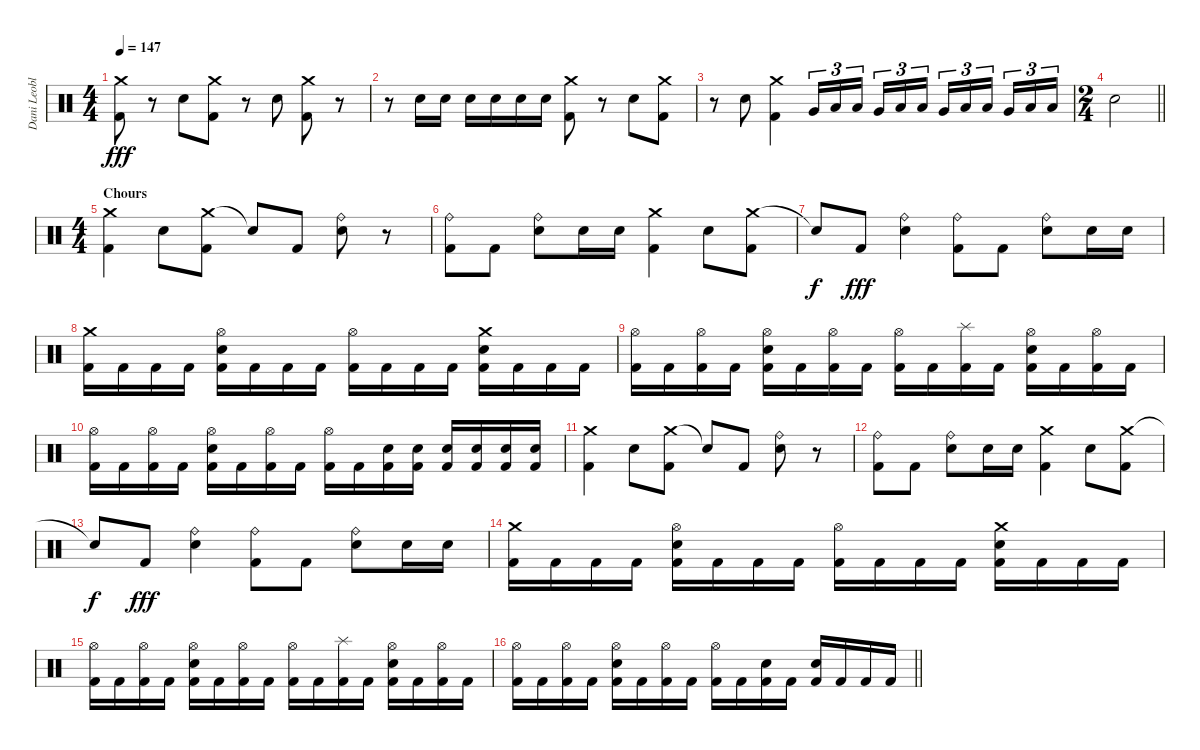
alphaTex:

\track ("Dani Leoble" "Dani Leobl") {instrument percussion}
\staff {score}
\articulation defaults
\ts (4 4)
\tempo 147
\clef neutral
\ks c
("Crash medium (hit)" "Kick (hit) 2").8{dy fff} r.8 "Electric Snare (hit)".8 ("Crash medium (hit)" "Kick (hit) 2").8 r.8 "Electric Snare (hit)".8 ("Crash medium (hit)" "Kick (hit) 2").8 r.8 |
r.8 "Electric Snare (hit)".16 "Electric Snare (hit)".16 "Electric Snare (hit)".16 "Electric Snare (hit)".16 "Electric Snare (hit)".16 "Electric Snare (hit)".16 ("Crash medium (hit)" "Kick (hit) 2").8 r.8 "Electric Snare (hit)".8 ("Crash medium (hit)" "Kick (hit) 2").8 |
r.8 "Electric Snare (hit)".8 ("Crash medium (hit)" "Kick (hit) 2").4 "Very Low Tom (hit)".16{tu (3 2)} "Low Floor Tom (hit)".16{tu (3 2)} "Low Floor Tom (hit)".16{tu (3 2) beam splitsecondary} "Very Low Tom (hit)".16{tu (3 2)} "Low Floor Tom (hit)".16{tu (3 2)} "Low Floor Tom (hit)".16{tu (3 2)} "Very Low Tom (hit)".16{tu (3 2)} "Low Floor Tom (hit)".16{tu (3 2)} "Low Floor Tom (hit)".16{tu (3 2) beam splitsecondary} "Very Low Tom (hit)".16{tu (3 2)} "Low Floor Tom (hit)".16{tu (3 2)} "Low Floor Tom (hit)".16{tu (3 2)} |
\ts (2 4)
\barLineRight lightlight "Electric Snare (hit)".2
|
\ts (4 4)
\section ("" "Chours")
("Crash medium (hit)" "Kick (hit) 2").4 "Electric Snare (hit)".8 ("Crash medium (hit)" "Kick (hit) 2").8 "Snare (hit)"{t}.8 "Kick (hit) 2".8 ("Ride (bell)" "Electric Snare (hit)").8 r.8 |
("Ride (bell)" "Kick (hit) 2").8 "Kick (hit) 2".8 ("Ride (bell)" "Electric Snare (hit)").8 "Electric Snare (hit)".16 "Electric Snare (hit)".16 ("Crash medium (hit)" "Kick (hit) 2").4 "Electric Snare (hit)".8 ("Crash medium (hit)" "Kick (hit) 2").8 |
"Snare (hit)"{t}.8{dy f} "Kick (hit) 2".8{dy fff} ("Ride (bell)" "Electric Snare (hit)").4 ("Ride (bell)" "Kick (hit) 2").8 "Kick (hit) 2".8 ("Ride (bell)" "Electric Snare (hit)").8 "Electric Snare (hit)".16 "Electric Snare (hit)".16 |
("Crash medium (hit)" "Kick (hit) 2").16 "Kick (hit) 2".16 "Kick (hit) 2".16 "Kick (hit) 2".16 ("Hi-Hat (open)" "Electric Snare (hit)" "Kick (hit) 2").16 "Kick (hit) 2".16 "Kick (hit) 2".16 "Kick (hit) 2".16 ("Hi-Hat (open)" "Kick (hit) 2").16 "Kick (hit) 2".16 "Kick (hit) 2".16 "Kick (hit) 2".16 ("Crash medium (hit)" "Electric Snare (hit)" "Kick (hit) 2").16 "Kick (hit) 2".16 "Kick (hit) 2".16 "Kick (hit) 2".16 |
("Hi-Hat (open)" "Kick (hit) 2").16 "Kick (hit) 2".16 ("Hi-Hat (open)" "Kick (hit) 2").16 "Kick (hit) 2".16 ("Hi-Hat (open)" "Electric Snare (hit)" "Kick (hit) 2").16 "Kick (hit) 2".16 ("Hi-Hat (open)" "Kick (hit) 2").16 "Kick (hit) 2".16 ("Hi-Hat (open)" "Kick (hit) 2").16 "Kick (hit) 2".16 ("Splash (hit)" "Kick (hit) 2").16 "Kick (hit) 2".16 ("Hi-Hat (open)" "Electric Snare (hit)" "Kick (hit) 2").16 "Kick (hit) 2".16 ("Hi-Hat (open)" "Kick (hit) 2").16 "Kick (hit) 2".16 |
("Hi-Hat (open)" "Kick (hit) 2").16 "Kick (hit) 2".16 ("Hi-Hat (open)" "Kick (hit) 2").16 "Kick (hit) 2".16 ("Hi-Hat (open)" "Electric Snare (hit)" "Kick (hit) 2").16 "Kick (hit) 2".16 ("Hi-Hat (open)" "Kick (hit) 2").16 "Kick (hit) 2".16 ("Hi-Hat (open)" "Kick (hit) 2").16 "Kick (hit) 2".16 ("Electric Snare (hit)" "Kick (hit) 2").16 ("Electric Snare (hit)" "Kick (hit) 2").16 ("Electric Snare (hit)" "Kick (hit) 2").16 ("Electric Snare (hit)" "Kick (hit) 2").16 ("Electric Snare (hit)" "Kick (hit) 2").16 ("Electric Snare (hit)" "Kick (hit) 2").16 |
("Crash medium (hit)" "Kick (hit) 2").4 "Electric Snare (hit)".8 ("Crash medium (hit)" "Kick (hit) 2").8 "Snare (hit)"{t}.8 "Kick (hit) 2".8 ("Ride (bell)" "Electric Snare (hit)").8 r.8 |
("Ride (bell)" "Kick (hit) 2").8 "Kick (hit) 2".8 ("Ride (bell)" "Electric Snare (hit)").8 "Electric Snare (hit)".16 "Electric Snare (hit)".16 ("Crash medium (hit)" "Kick (hit) 2").4 "Electric Snare (hit)".8 ("Crash medium (hit)" "Kick (hit) 2").8 |
"Snare (hit)"{t}.8{dy f} "Kick (hit) 2".8{dy fff} ("Ride (bell)" "Electric Snare (hit)").4 ("Ride (bell)" "Kick (hit) 2").8 "Kick (hit) 2".8 ("Ride (bell)" "Electric Snare (hit)").8 "Electric Snare (hit)".16 "Electric Snare (hit)".16 |
("Crash medium (hit)" "Kick (hit) 2").16 "Kick (hit) 2".16 "Kick (hit) 2".16 "Kick (hit) 2".16 ("Hi-Hat (open)" "Electric Snare (hit)" "Kick (hit) 2").16 "Kick (hit) 2".16 "Kick (hit) 2".16 "Kick (hit) 2".16 ("Hi-Hat (open)" "Kick (hit) 2").16 "Kick (hit) 2".16 "Kick (hit) 2".16 "Kick (hit) 2".16 ("Crash medium (hit)" "Electric Snare (hit)" "Kick (hit) 2").16 "Kick (hit) 2".16 "Kick (hit) 2".16 "Kick (hit) 2".16 |
("Hi-Hat (open)" "Kick (hit) 2").16 "Kick (hit) 2".16 ("Hi-Hat (open)" "Kick (hit) 2").16 "Kick (hit) 2".16 ("Hi-Hat (open)" "Electric Snare (hit)" "Kick (hit) 2").16 "Kick (hit) 2".16 ("Hi-Hat (open)" "Kick (hit) 2").16 "Kick (hit) 2".16 ("Hi-Hat (open)" "Kick (hit) 2").16 "Kick (hit) 2".16 ("Splash (hit)" "Kick (hit) 2").16 "Kick (hit) 2".16 ("Hi-Hat (open)" "Electric Snare (hit)" "Kick (hit) 2").16 "Kick (hit) 2".16 ("Hi-Hat (open)" "Kick (hit) 2").16 "Kick (hit) 2".16 |
\barLineRight lightlight
("Hi-Hat (open)" "Kick (hit) 2").16 "Kick (hit) 2".16 ("Hi-Hat (open)" "Kick (hit) 2").16 "Kick (hit) 2".16 ("Hi-Hat (open)" "Electric Snare (hit)" "Kick (hit) 2").16 "Kick (hit) 2".16 ("Hi-Hat (open)" "Kick (hit) 2").16 "Kick (hit) 2".16 ("Hi-Hat (open)" "Kick (hit) 2").16 "Kick (hit) 2".16 ("Electric Snare (hit)" "Kick (hit) 2").16 "Kick (hit) 2".16 ("Electric Snare (hit)" "Kick (hit) 2").16 "Kick (hit) 2".16 "Kick (hit) 2".16 "Kick (hit) 2".16
